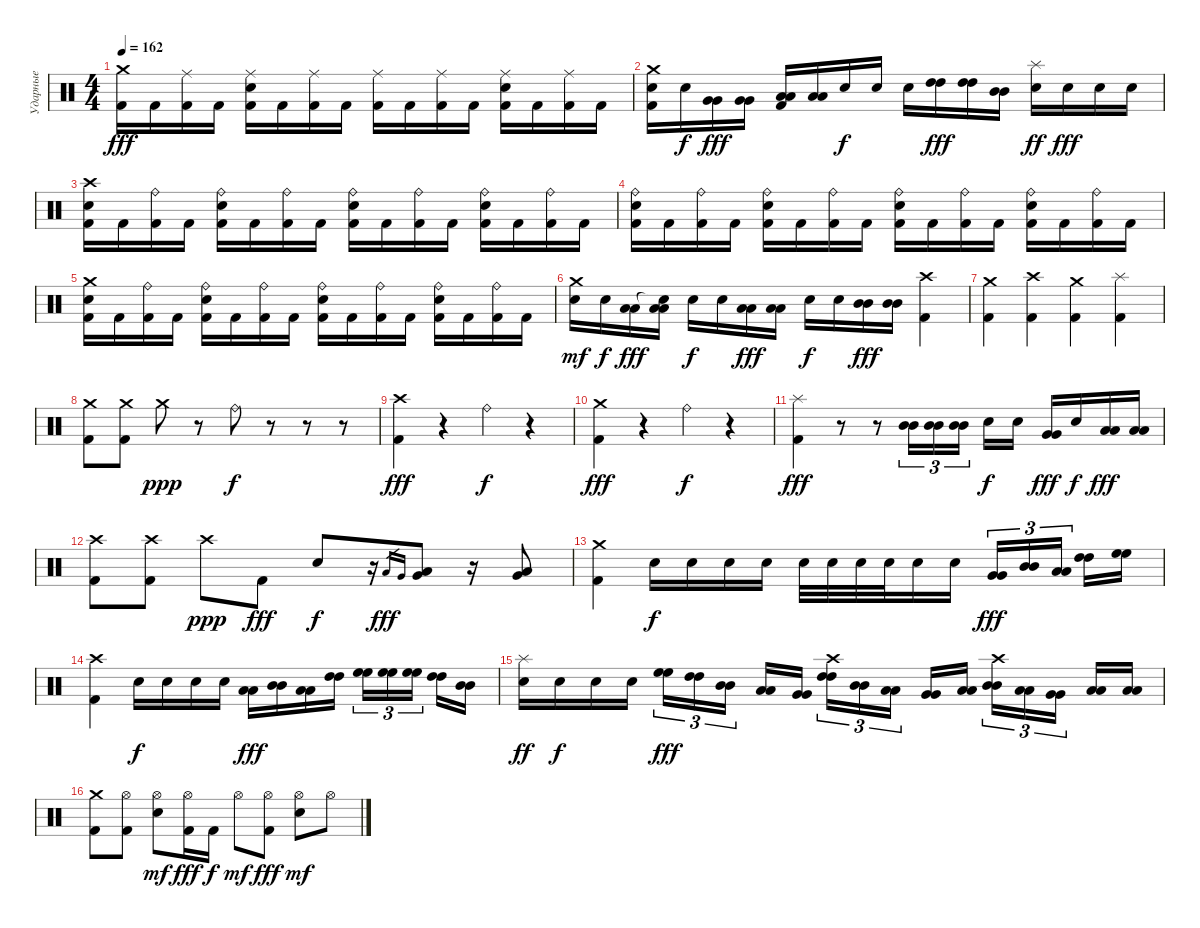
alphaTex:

\track ("Ударные" "Ударные") {instrument percussion}
\staff {score}
\articulation defaults
\ts (4 4)
\tempo 162
\clef neutral
\ks c
("Crash medium (hit)" "Kick (hit) 2").16{dy fff} "Kick (hit) 2".16 ("Ride (middle)" "Kick (hit) 2").16 "Kick (hit) 2".16 ("Ride (middle)" "Electric Snare (hit)" "Kick (hit) 2").16 "Kick (hit) 2".16 ("Ride (middle)" "Kick (hit) 2").16 "Kick (hit) 2".16 ("Ride (middle)" "Kick (hit) 2").16 "Kick (hit) 2".16 ("Ride (middle)" "Kick (hit) 2").16 "Kick (hit) 2".16 ("Ride (middle)" "Electric Snare (hit)" "Kick (hit) 2").16 "Kick (hit) 2".16 ("Ride (middle)" "Kick (hit) 2").16 "Kick (hit) 2".16 |
("Electric Snare (hit)" "Crash medium (hit)" "Kick (hit) 2").16 "Electric Snare (hit)".16{dy f} ("Very Low Tom (hit)" "Very Low Tom (hit)").16{dy fff} ("Very Low Tom (hit)" "Very Low Tom (hit)").16 ("Low Tom (hit)" "Low Tom (hit)" "Kick (hit) 2").16 ("Low Tom (hit)" "Low Tom (hit)").16 "Electric Snare (hit)".16{dy f} "Electric Snare (hit)".16 "Electric Snare (hit)".16 ("High Tom (hit)" "High Tom (hit)").16{dy fff} ("High Tom (hit)" "High Tom (hit)").16 ("Mid Tom (hit)" "Mid Tom (hit)").16 ("Electric Snare (hit)" "Splash (hit)").16{dy ff} "Electric Snare (hit)".16{dy fff} "Electric Snare (hit)".16 "Electric Snare (hit)".16 |
("Crash high (hit)" "Electric Snare (hit)" "Kick (hit) 2").16 "Kick (hit) 2".16 ("Ride (bell)" "Kick (hit) 2").16 "Kick (hit) 2".16 ("Ride (bell)" "Electric Snare (hit)" "Kick (hit) 2").16 "Kick (hit) 2".16 ("Ride (bell)" "Kick (hit) 2").16 "Kick (hit) 2".16 ("Ride (bell)" "Electric Snare (hit)" "Kick (hit) 2").16 "Kick (hit) 2".16 ("Ride (bell)" "Kick (hit) 2").16 "Kick (hit) 2".16 ("Ride (bell)" "Electric Snare (hit)" "Kick (hit) 2").16 "Kick (hit) 2".16 ("Ride (bell)" "Kick (hit) 2").16 "Kick (hit) 2".16 |
("Ride (bell)" "Electric Snare (hit)" "Kick (hit) 2").16 "Kick (hit) 2".16 ("Ride (bell)" "Kick (hit) 2").16 "Kick (hit) 2".16 ("Ride (bell)" "Electric Snare (hit)" "Kick (hit) 2").16 "Kick (hit) 2".16 ("Ride (bell)" "Kick (hit) 2").16 "Kick (hit) 2".16 ("Ride (bell)" "Electric Snare (hit)" "Kick (hit) 2").16 "Kick (hit) 2".16 ("Ride (bell)" "Kick (hit) 2").16 "Kick (hit) 2".16 ("Ride (bell)" "Electric Snare (hit)" "Kick (hit) 2").16 "Kick (hit) 2".16 ("Ride (bell)" "Kick (hit) 2").16 "Kick (hit) 2".16 |
("Crash medium (hit)" "Electric Snare (hit)" "Kick (hit) 2").16 "Kick (hit) 2".16 ("Ride (bell)" "Kick (hit) 2").16 "Kick (hit) 2".16 ("Ride (bell)" "Electric Snare (hit)" "Kick (hit) 2").16 "Kick (hit) 2".16 ("Ride (bell)" "Kick (hit) 2").16 "Kick (hit) 2".16 ("Ride (bell)" "Electric Snare (hit)" "Kick (hit) 2").16 "Kick (hit) 2".16 ("Ride (bell)" "Kick (hit) 2").16 "Kick (hit) 2".16 ("Ride (bell)" "Electric Snare (hit)" "Kick (hit) 2").16 "Kick (hit) 2".16 ("Ride (bell)" "Kick (hit) 2").16 "Kick (hit) 2".16 |
("Crash medium (hit)" "Electric Snare (hit)").16{dy mf} "Electric Snare (hit)".16{dy f} ("Low Floor Tom (hit)" "Low Floor Tom (hit)").16{dy fff} ("Snare (hit)"{t} "Low Floor Tom (hit)" "Low Floor Tom (hit)").16 "Electric Snare (hit)".16{dy f} "Electric Snare (hit)".16 ("Low Floor Tom (hit)" "Low Floor Tom (hit)").16{dy fff} ("Low Floor Tom (hit)" "Low Floor Tom (hit)").16 "Electric Snare (hit)".16{dy f} "Electric Snare (hit)".16 ("Mid Tom (hit)" "Mid Tom (hit)").16{dy fff} ("Mid Tom (hit)" "Mid Tom (hit)").16 ("Crash high (hit)" "Kick (hit) 2").4 |
("Crash medium (hit)" "Kick (hit) 2").4 ("Crash high (hit)" "Kick (hit) 2").4 ("Crash medium (hit)" "Kick (hit) 2").4 ("Splash (hit)" "Kick (hit) 2").4 |
("Crash medium (hit)" "Kick (hit) 2").8 ("Crash medium (hit)" "Kick (hit) 2").8 "Crash medium (hit)".8{dy ppp} r.8 "Ride (bell)".8{dy f} r.8 r.8 r.8 |
("Crash high (hit)" "Kick (hit) 2").4{dy fff} r.4 "Ride (bell)".4{dy f} r.4 |
("Crash medium (hit)" "Kick (hit) 2").4{dy fff} r.4 "Ride (bell)".4{dy f} r.4 |
("Splash (hit)" "Kick (hit) 2").4{dy fff} r.8 r.8 ("Mid Tom (hit)" "Mid Tom (hit)").16{tu (3 2)} ("Mid Tom (hit)" "Mid Tom (hit)").16{tu (3 2)} ("Mid Tom (hit)" "Mid Tom (hit)").16{tu (3 2)} "Electric Snare (hit)".16{dy f} "Electric Snare (hit)".16 ("Very Low Tom (hit)" "Very Low Tom (hit)").16{dy fff} "Electric Snare (hit)".16{dy f} ("Low Floor Tom (hit)" "Low Floor Tom (hit)").16{dy fff} ("Low Floor Tom (hit)" "Low Floor Tom (hit)").16 |
("Crash high (hit)" "Kick (hit) 2").8 ("Crash high (hit)" "Kick (hit) 2").8 "Crash high (hit)".8{dy ppp} "Kick (hit) 2".8{dy fff} "Electric Snare (hit)".8{dy f} r.16 "Low Tom (hit)".16{gr dy fff} "Very Low Tom (hit)".16{gr} ("Low Tom (hit)" "Very Low Tom (hit)").8 r.16 ("Very Low Tom (hit)" "Low Floor Tom (hit)").8 |
("Crash medium (hit)" "Kick (hit) 2").4 "Electric Snare (hit)".16{dy f} "Electric Snare (hit)".16 "Electric Snare (hit)".16 "Electric Snare (hit)".16 "Electric Snare (hit)".32 "Electric Snare (hit)".32 "Electric Snare (hit)".32 "Electric Snare (hit)".32 "Electric Snare (hit)".16 "Electric Snare (hit)".16 ("Very Low Tom (hit)" "Very Low Tom (hit)").16{tu (3 2) dy fff} ("Mid Tom (hit)" "Mid Tom (hit)").16{tu (3 2)} ("Low Tom (hit)" "Low Tom (hit)").16{tu (3 2)} ("High Tom (hit)" "High Tom (hit)").16 ("High Floor Tom (hit)" "High Floor Tom (hit)").16 |
("Crash high (hit)" "Kick (hit) 2").4 "Electric Snare (hit)".16{dy f} "Electric Snare (hit)".16 "Electric Snare (hit)".16 "Electric Snare (hit)".16 ("Low Tom (hit)" "Low Tom (hit)").16{dy fff} ("Mid Tom (hit)" "Mid Tom (hit)").16 ("Low Tom (hit)" "Low Tom (hit)").16 ("High Tom (hit)" "High Tom (hit)").16 ("High Floor Tom (hit)" "High Floor Tom (hit)").16{tu (3 2)} ("High Floor Tom (hit)" "High Floor Tom (hit)").16{tu (3 2)} ("High Floor Tom (hit)" "High Floor Tom (hit)").16{tu (3 2)} ("High Tom (hit)" "High Tom (hit)").16 ("Mid Tom (hit)" "Mid Tom (hit)").16 |
("Splash (hit)" "Electric Snare (hit)").16{dy ff} "Electric Snare (hit)".16{dy f} "Electric Snare (hit)".16 "Electric Snare (hit)".16 ("High Floor Tom (hit)" "High Floor Tom (hit)").16{tu (3 2) dy fff} ("High Tom (hit)" "High Tom (hit)").16{tu (3 2)} ("Mid Tom (hit)" "Mid Tom (hit)").16{tu (3 2)} ("Low Tom (hit)" "Low Tom (hit)").16 ("Very Low Tom (hit)" "Very Low Tom (hit)").16 ("Crash high (hit)" "High Tom (hit)" "High Tom (hit)").16{tu (3 2)} ("Mid Tom (hit)" "Mid Tom (hit)").16{tu (3 2)} ("Low Tom (hit)" "Low Tom (hit)").16{tu (3 2)} ("Very Low Tom (hit)" "Very Low Tom (hit)").16 ("Low Floor Tom (hit)" "Low Floor Tom (hit)").16 ("Crash high (hit)" "Mid Tom (hit)" "Mid Tom (hit)").16{tu (3 2)} ("Low Tom (hit)" "Low Tom (hit)").16{tu (3 2)} ("Very Low Tom (hit)" "Very Low Tom (hit)").16{tu (3 2)} ("Low Floor Tom (hit)" "Low Floor Tom (hit)").16 ("Low Floor Tom (hit)" "Low Floor Tom (hit)").16 |
("Crash medium (hit)" "Kick (hit) 2").8 ("Hi-Hat (open)" "Kick (hit) 2").8 ("Hi-Hat (open)" "Electric Snare (hit)").8{dy mf} ("Hi-Hat (open)" "Kick (hit) 2").16{dy fff} "Kick (hit) 2".16{dy f} "Hi-Hat (open)".8{dy mf} ("Hi-Hat (open)" "Kick (hit) 2").8{dy fff} ("Hi-Hat (open)" "Electric Snare (hit)").8{dy mf} "Hi-Hat (open)".8
